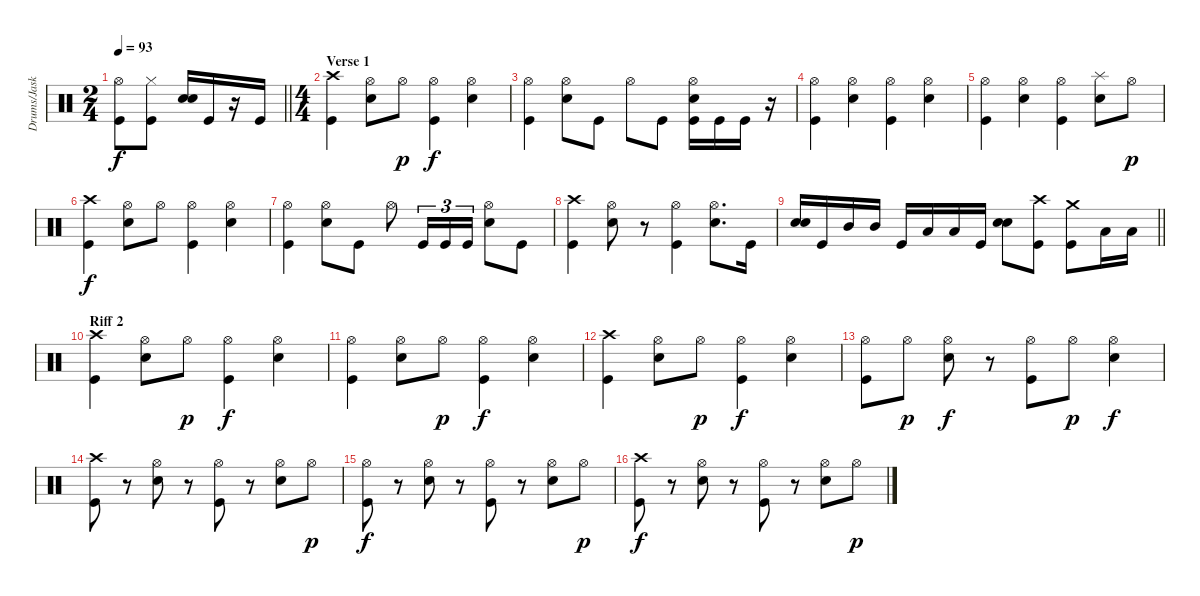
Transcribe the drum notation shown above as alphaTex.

\track ("Drums/Jaska" "Drums/Jask") {instrument percussion}
\staff {score}
\articulation defaults
\ts (2 4)
\tempo 93
\clef neutral
\barLineRight lightlight
\ks c
("Hi-Hat (open)" "Kick (hit)").8{dy f} ("Hi-Hat (closed)" "Kick (hit)").8 ("Electric Snare (hit)" "Snare (hit) 2").16 "Kick (hit)".16 r.16 "Kick (hit)".16 |
\ts (4 4)
\section ("" "Verse 1")
("Crash high (hit)" "Kick (hit)").4 ("Hi-Hat (open)" "Electric Snare (hit)").8 "Hi-Hat (open)".8{dy p} ("Hi-Hat (open)" "Kick (hit)").4{dy f} ("Hi-Hat (open)" "Electric Snare (hit)").4 |
("Hi-Hat (open)" "Kick (hit)").4 ("Hi-Hat (open)" "Electric Snare (hit)").8 "Kick (hit)".8 "Hi-Hat (open)".8 "Kick (hit)".8 ("Hi-Hat (open)" "Electric Snare (hit)" "Kick (hit)").16 "Kick (hit)".16 "Kick (hit)".16 r.16 |
("Hi-Hat (open)" "Kick (hit)").4 ("Hi-Hat (open)" "Electric Snare (hit)").4 ("Hi-Hat (open)" "Kick (hit)").4 ("Hi-Hat (open)" "Electric Snare (hit)").4 |
("Hi-Hat (open)" "Kick (hit)").4 ("Hi-Hat (open)" "Electric Snare (hit)").4 ("Hi-Hat (open)" "Kick (hit)").4 ("Splash (hit)" "Electric Snare (hit)").8 "Hi-Hat (open)".8{dy p} |
("Crash high (hit)" "Kick (hit)").4{dy f} ("Hi-Hat (open)" "Electric Snare (hit)").8 "Hi-Hat (open)".8 ("Hi-Hat (open)" "Kick (hit)").4 ("Hi-Hat (open)" "Electric Snare (hit)").4 |
("Hi-Hat (open)" "Kick (hit)").4 ("Hi-Hat (open)" "Electric Snare (hit)").8 "Kick (hit)".8 "Hi-Hat (open)".8 "Kick (hit)".16{tu (3 2)} "Kick (hit)".16{tu (3 2)} "Kick (hit)".16{tu (3 2)} ("Hi-Hat (open)" "Electric Snare (hit)").8 "Kick (hit)".8 |
("Crash high (hit)" "Kick (hit)").4 ("Hi-Hat (open)" "Electric Snare (hit)").8 r.8 ("Hi-Hat (open)" "Kick (hit)").4 ("Hi-Hat (open)" "Electric Snare (hit)").8{d} "Kick (hit)".16 |
\barLineRight lightlight
("Snare (hit) 2" "Electric Snare (hit)").16 "Kick (hit)".16 "Mid Tom (hit)".16 "Mid Tom (hit)".16 "Kick (hit)".16 "Low Tom (hit)".16 "Low Tom (hit)".16 "Kick (hit)".16 ("Snare (hit) 2" "Electric Snare (hit)").8 ("Crash high (hit)" "Kick (hit)").8 ("Crash medium (hit)" "Kick (hit)").8 "Low Tom (hit)".16 "Low Tom (hit)".16 |
\section ("" "Riff 2")
("Crash high (hit)" "Kick (hit)").4 ("Hi-Hat (open)" "Electric Snare (hit)").8 "Hi-Hat (open)".8{dy p} ("Hi-Hat (open)" "Kick (hit)").4{dy f} ("Hi-Hat (open)" "Electric Snare (hit)").4 |
("Hi-Hat (open)" "Kick (hit)").4 ("Hi-Hat (open)" "Electric Snare (hit)").8 "Hi-Hat (open)".8{dy p} ("Hi-Hat (open)" "Kick (hit)").4{dy f} ("Hi-Hat (open)" "Electric Snare (hit)").4 |
("Crash high (hit)" "Kick (hit)").4 ("Hi-Hat (open)" "Electric Snare (hit)").8 "Hi-Hat (open)".8{dy p} ("Hi-Hat (open)" "Kick (hit)").4{dy f} ("Hi-Hat (open)" "Electric Snare (hit)").4 |
("Hi-Hat (open)" "Kick (hit)").8 "Hi-Hat (open)".8{dy p} ("Hi-Hat (open)" "Electric Snare (hit)").8{dy f} r.8 ("Hi-Hat (open)" "Kick (hit)").8 "Hi-Hat (open)".8{dy p} ("Hi-Hat (open)" "Electric Snare (hit)").4{dy f} |
("Crash high (hit)" "Kick (hit)").8 r.8 ("Hi-Hat (open)" "Electric Snare (hit)").8 r.8 ("Hi-Hat (open)" "Kick (hit)").8 r.8 ("Hi-Hat (open)" "Electric Snare (hit)").8 "Hi-Hat (open)".8{dy p} |
("Hi-Hat (open)" "Kick (hit)").8{dy f} r.8 ("Hi-Hat (open)" "Electric Snare (hit)").8 r.8 ("Hi-Hat (open)" "Kick (hit)").8 r.8 ("Hi-Hat (open)" "Electric Snare (hit)").8 "Hi-Hat (open)".8{dy p} |
("Crash high (hit)" "Kick (hit)").8{dy f} r.8 ("Hi-Hat (open)" "Electric Snare (hit)").8 r.8 ("Hi-Hat (open)" "Kick (hit)").8 r.8 ("Hi-Hat (open)" "Electric Snare (hit)").8 "Hi-Hat (open)".8{dy p}
